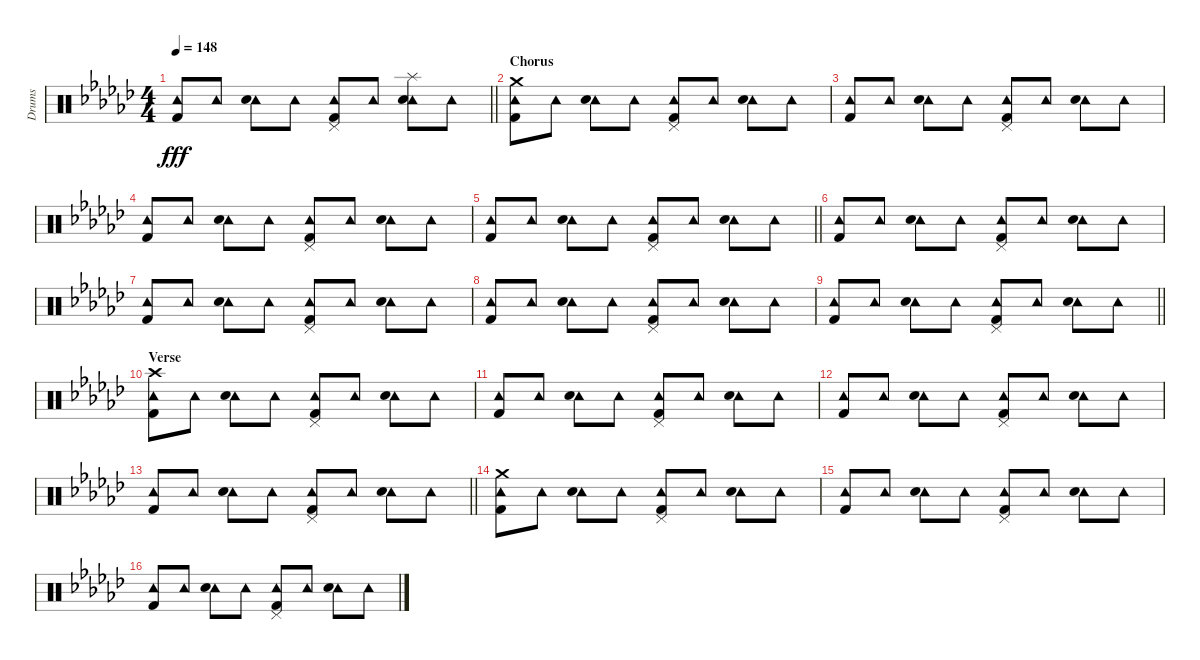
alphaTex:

\track ("Drums" "Drums") {instrument percussion}
\staff {score}
\articulation defaults
\ts (4 4)
\tempo 148
\clef neutral
\barLineRight lightlight
\ks gb
("Tambourine (hit)" "Kick (hit) 2").8{dy fff} "Tambourine (hit)".8 ("Tambourine (hit)" "Electric Snare (hit)").8 "Tambourine (hit)".8 ("Pedal Hi-Hat (hit)" "Tambourine (hit)" "Kick (hit) 2").8 "Tambourine (hit)".8 ("Splash (hit)" "Tambourine (hit)" "Electric Snare (hit)").8 "Tambourine (hit)".8 |
\section ("" "Chorus")
("Crash medium (hit)" "Tambourine (hit)" "Kick (hit) 2").8 "Tambourine (hit)".8 ("Tambourine (hit)" "Electric Snare (hit)").8 "Tambourine (hit)".8 ("Pedal Hi-Hat (hit)" "Tambourine (hit)" "Kick (hit) 2").8 "Tambourine (hit)".8 ("Tambourine (hit)" "Electric Snare (hit)").8 "Tambourine (hit)".8 |
("Tambourine (hit)" "Kick (hit) 2").8 "Tambourine (hit)".8 ("Tambourine (hit)" "Electric Snare (hit)").8 "Tambourine (hit)".8 ("Pedal Hi-Hat (hit)" "Tambourine (hit)" "Kick (hit) 2").8 "Tambourine (hit)".8 ("Tambourine (hit)" "Electric Snare (hit)").8 "Tambourine (hit)".8 |
("Tambourine (hit)" "Kick (hit) 2").8 "Tambourine (hit)".8 ("Tambourine (hit)" "Electric Snare (hit)").8 "Tambourine (hit)".8 ("Pedal Hi-Hat (hit)" "Tambourine (hit)" "Kick (hit) 2").8 "Tambourine (hit)".8 ("Tambourine (hit)" "Electric Snare (hit)").8 "Tambourine (hit)".8 |
\barLineRight lightlight
("Tambourine (hit)" "Kick (hit) 2").8 "Tambourine (hit)".8 ("Tambourine (hit)" "Electric Snare (hit)").8 "Tambourine (hit)".8 ("Pedal Hi-Hat (hit)" "Tambourine (hit)" "Kick (hit) 2").8 "Tambourine (hit)".8 ("Tambourine (hit)" "Electric Snare (hit)").8 "Tambourine (hit)".8 |
("Tambourine (hit)" "Kick (hit) 2").8 "Tambourine (hit)".8 ("Tambourine (hit)" "Electric Snare (hit)").8 "Tambourine (hit)".8 ("Pedal Hi-Hat (hit)" "Tambourine (hit)" "Kick (hit) 2").8 "Tambourine (hit)".8 ("Tambourine (hit)" "Electric Snare (hit)").8 "Tambourine (hit)".8 |
("Tambourine (hit)" "Kick (hit) 2").8 "Tambourine (hit)".8 ("Tambourine (hit)" "Electric Snare (hit)").8 "Tambourine (hit)".8 ("Pedal Hi-Hat (hit)" "Tambourine (hit)" "Kick (hit) 2").8 "Tambourine (hit)".8 ("Tambourine (hit)" "Electric Snare (hit)").8 "Tambourine (hit)".8 |
("Tambourine (hit)" "Kick (hit) 2").8 "Tambourine (hit)".8 ("Tambourine (hit)" "Electric Snare (hit)").8 "Tambourine (hit)".8 ("Pedal Hi-Hat (hit)" "Tambourine (hit)" "Kick (hit) 2").8 "Tambourine (hit)".8 ("Tambourine (hit)" "Electric Snare (hit)").8 "Tambourine (hit)".8 |
\barLineRight lightlight
("Tambourine (hit)" "Kick (hit) 2").8 "Tambourine (hit)".8 ("Tambourine (hit)" "Electric Snare (hit)").8 "Tambourine (hit)".8 ("Pedal Hi-Hat (hit)" "Tambourine (hit)" "Kick (hit) 2").8 "Tambourine (hit)".8 ("Tambourine (hit)" "Electric Snare (hit)").8 "Tambourine (hit)".8 |
\section ("" "Verse")
("Crash high (hit)" "Tambourine (hit)" "Kick (hit) 2").8 "Tambourine (hit)".8 ("Tambourine (hit)" "Electric Snare (hit)").8 "Tambourine (hit)".8 ("Pedal Hi-Hat (hit)" "Tambourine (hit)" "Kick (hit) 2").8 "Tambourine (hit)".8 ("Tambourine (hit)" "Electric Snare (hit)").8 "Tambourine (hit)".8 |
("Tambourine (hit)" "Kick (hit) 2").8 "Tambourine (hit)".8 ("Tambourine (hit)" "Electric Snare (hit)").8 "Tambourine (hit)".8 ("Pedal Hi-Hat (hit)" "Tambourine (hit)" "Kick (hit) 2").8 "Tambourine (hit)".8 ("Tambourine (hit)" "Electric Snare (hit)").8 "Tambourine (hit)".8 |
("Tambourine (hit)" "Kick (hit) 2").8 "Tambourine (hit)".8 ("Tambourine (hit)" "Electric Snare (hit)").8 "Tambourine (hit)".8 ("Pedal Hi-Hat (hit)" "Tambourine (hit)" "Kick (hit) 2").8 "Tambourine (hit)".8 ("Tambourine (hit)" "Electric Snare (hit)").8 "Tambourine (hit)".8 |
\barLineRight lightlight
("Tambourine (hit)" "Kick (hit) 2").8 "Tambourine (hit)".8 ("Tambourine (hit)" "Electric Snare (hit)").8 "Tambourine (hit)".8 ("Pedal Hi-Hat (hit)" "Tambourine (hit)" "Kick (hit) 2").8 "Tambourine (hit)".8 ("Tambourine (hit)" "Electric Snare (hit)").8 "Tambourine (hit)".8 |
("Crash medium (hit)" "Tambourine (hit)" "Kick (hit) 2").8 "Tambourine (hit)".8 ("Tambourine (hit)" "Electric Snare (hit)").8 "Tambourine (hit)".8 ("Pedal Hi-Hat (hit)" "Tambourine (hit)" "Kick (hit) 2").8 "Tambourine (hit)".8 ("Tambourine (hit)" "Electric Snare (hit)").8 "Tambourine (hit)".8 |
("Tambourine (hit)" "Kick (hit) 2").8 "Tambourine (hit)".8 ("Tambourine (hit)" "Electric Snare (hit)").8 "Tambourine (hit)".8 ("Pedal Hi-Hat (hit)" "Tambourine (hit)" "Kick (hit) 2").8 "Tambourine (hit)".8 ("Tambourine (hit)" "Electric Snare (hit)").8 "Tambourine (hit)".8 |
("Tambourine (hit)" "Kick (hit) 2").8 "Tambourine (hit)".8 ("Tambourine (hit)" "Electric Snare (hit)").8 "Tambourine (hit)".8 ("Pedal Hi-Hat (hit)" "Tambourine (hit)" "Kick (hit) 2").8 "Tambourine (hit)".8 ("Tambourine (hit)" "Electric Snare (hit)").8 "Tambourine (hit)".8
